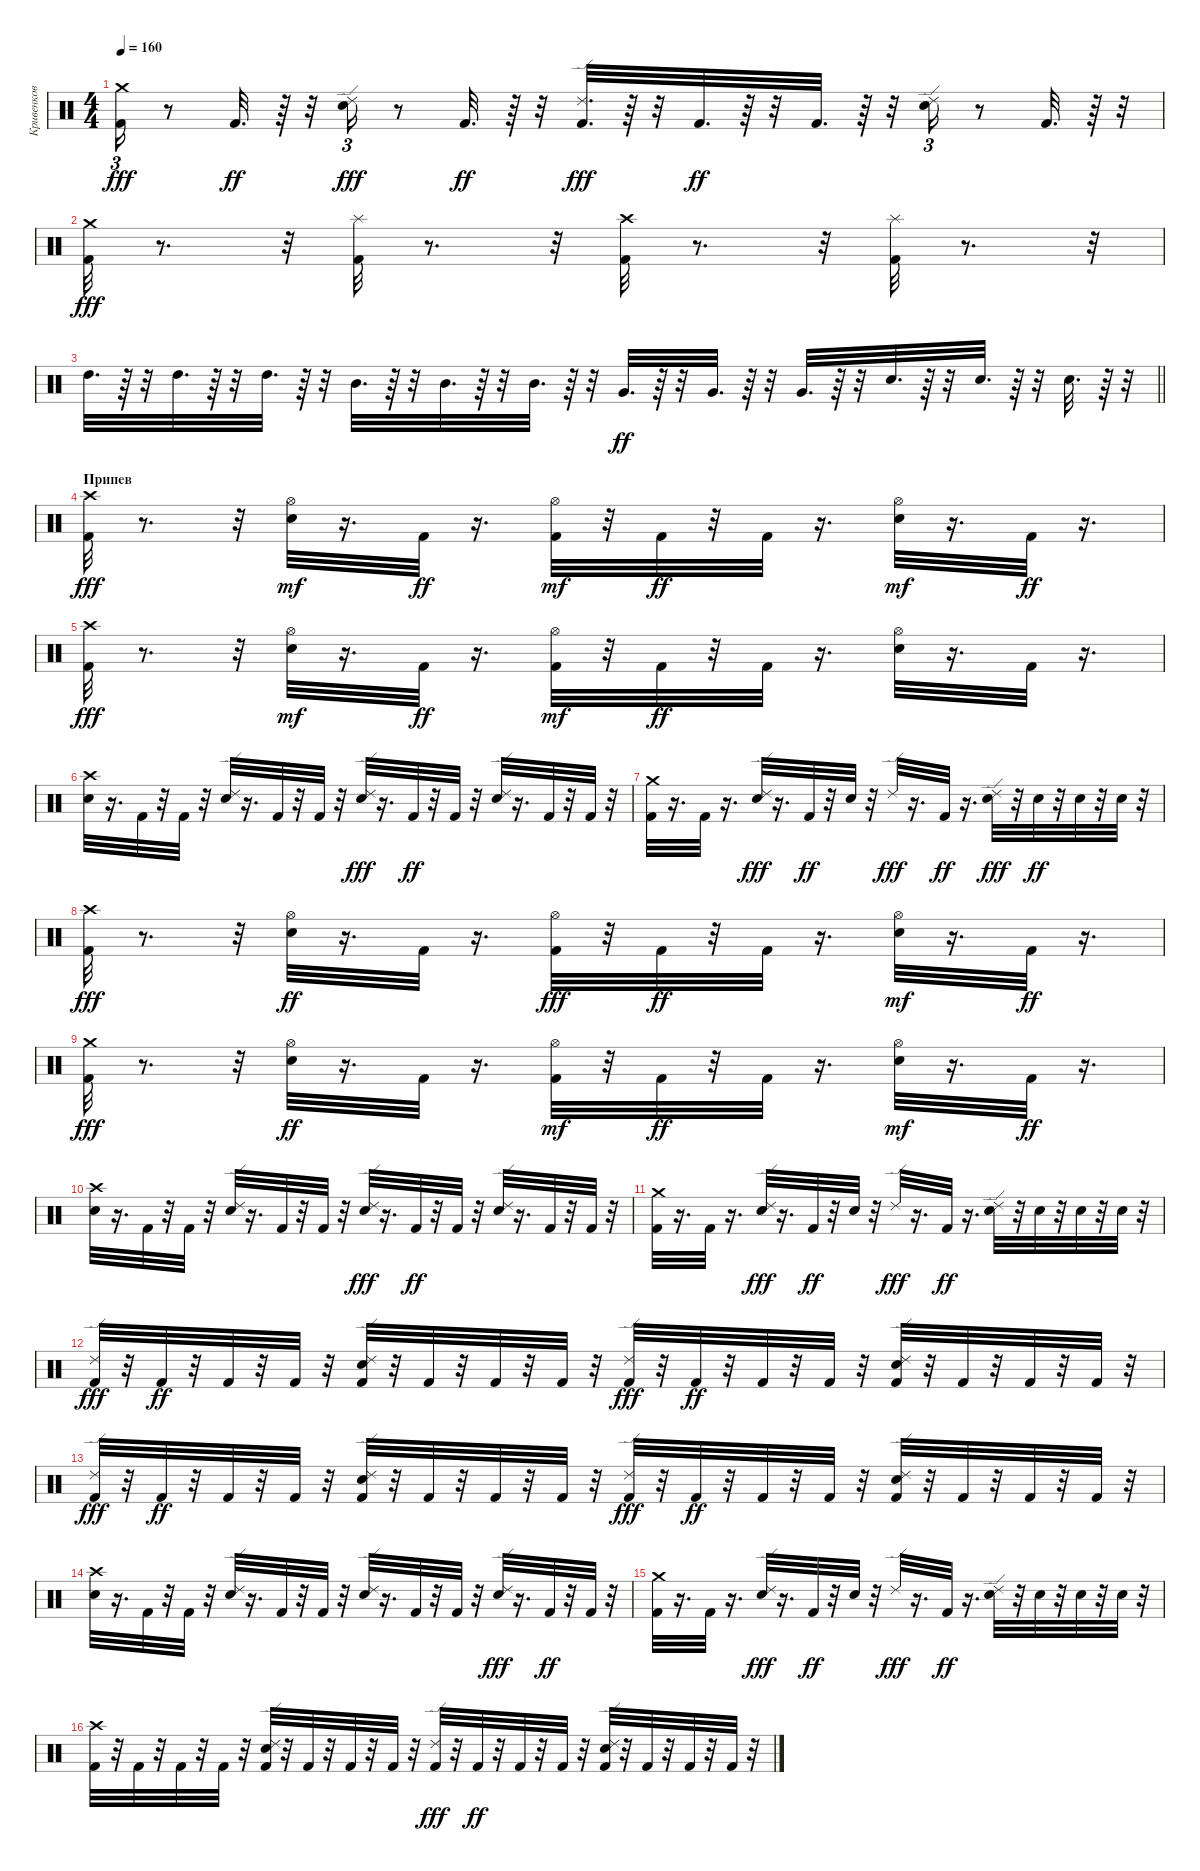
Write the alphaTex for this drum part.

\track ("Кривенков" "Кривенков") {instrument percussion}
\staff {score}
\articulation defaults
\ts (4 4)
\tempo 160
\clef neutral
\ks c
("Crash medium (hit)" "Kick (hit) 2").16{tu (3 2) dy fff} r.8 "Kick (hit) 2".32{d dy ff} r.64 r.32 ("Electric Snare (hit)" "Ride (edge) 2").16{tu (3 2) dy fff} r.8 "Kick (hit) 2".32{d dy ff} r.64 r.32 ("Ride (edge) 2" "Kick (hit) 2").32{d dy fff} r.64 r.32 "Kick (hit) 2".32{d dy ff} r.64 r.32 "Kick (hit) 2".32{d} r.64 r.32 ("Ride (edge) 2" "Electric Snare (hit)").16{tu (3 2)} r.8 "Kick (hit) 2".32{d} r.64 r.32 |
("Kick (hit) 2" "Crash medium (hit)").32{dy fff} r.8{d} r.32 ("Splash (hit)" "Kick (hit) 2").32 r.8{d} r.32 ("Kick (hit) 2" "Crash high (hit)").32 r.8{d} r.32 ("Splash (hit)" "Kick (hit) 2").32 r.8{d} r.32 |
\barLineRight lightlight "High Tom (hit)".32{d}
r.64 r.32 "High Tom (hit)".32{d} r.64 r.32 "High Tom (hit)".32{d} r.64 r.32 "Mid Tom (hit)".32{d} r.64 r.32 "Mid Tom (hit)".32{d} r.64 r.32 "Mid Tom (hit)".32{d} r.64 r.32 "Very Low Tom (hit)".32{d dy ff} r.64 r.32 "Very Low Tom (hit)".32{d} r.64 r.32 "Very Low Tom (hit)".32{d} r.64 r.32 "Electric Snare (hit)".32{d} r.64 r.32 "Electric Snare (hit)".32{d} r.64 r.32 "Electric Snare (hit)".32{d} r.64 r.32 |
\section ("" "Припев")
("Crash high (hit)" "Kick (hit) 2").32{dy fff} r.8{d} r.32 ("Electric Snare (hit)" "Hi-Hat (open)").32{dy mf} r.16{d} "Kick (hit) 2".32{dy ff} r.16{d} ("Kick (hit) 2" "Hi-Hat (open)").32{dy mf} r.32 "Kick (hit) 2".32{dy ff} r.32 "Kick (hit) 2".32 r.16{d} ("Electric Snare (hit)" "Hi-Hat (open)").32{dy mf} r.16{d} "Kick (hit) 2".32{dy ff} r.16{d} |
("Kick (hit) 2" "Crash high (hit)").32{dy fff} r.8{d} r.32 ("Electric Snare (hit)" "Hi-Hat (open)").32{dy mf} r.16{d} "Kick (hit) 2".32{dy ff} r.16{d} ("Kick (hit) 2" "Hi-Hat (open)").32{dy mf} r.32 "Kick (hit) 2".32{dy ff} r.32 "Kick (hit) 2".32 r.16{d} ("Hi-Hat (open)" "Electric Snare (hit)").32 r.16{d} "Kick (hit) 2".32 r.16{d} |
("Electric Snare (hit)" "Crash high (hit)").32 r.16{d} "Kick (hit) 2".32 r.32 "Kick (hit) 2".32 r.32 ("Ride (edge) 2" "Electric Snare (hit)").32 r.16{d} "Kick (hit) 2".32 r.32 "Kick (hit) 2".32 r.32 ("Electric Snare (hit)" "Ride (edge) 2").32{dy fff} r.16{d} "Kick (hit) 2".32{dy ff} r.32 "Kick (hit) 2".32 r.32 ("Ride (edge) 2" "Electric Snare (hit)").32 r.16{d} "Kick (hit) 2".32 r.32 "Kick (hit) 2".32 r.32 |
("Kick (hit) 2" "Crash medium (hit)").32 r.16{d} "Kick (hit) 2".32 r.16{d} ("Electric Snare (hit)" "Ride (edge) 2").32{dy fff} r.16{d} "Kick (hit) 2".32{dy ff} r.32 "Electric Snare (hit)".32 r.32 "Ride (edge) 2".32{dy fff} r.16{d} "Kick (hit) 2".32{dy ff} r.16{d} ("Electric Snare (hit)" "Ride (edge) 2").32{dy fff} r.32 "Electric Snare (hit)".32{dy ff} r.32 "Electric Snare (hit)".32 r.32 "Electric Snare (hit)".32 r.32 |
("Crash high (hit)" "Kick (hit) 2").32{dy fff} r.8{d} r.32 ("Hi-Hat (open)" "Electric Snare (hit)").32{dy ff} r.16{d} "Kick (hit) 2".32 r.16{d} ("Hi-Hat (open)" "Kick (hit) 2").32{dy fff} r.32 "Kick (hit) 2".32{dy ff} r.32 "Kick (hit) 2".32 r.16{d} ("Electric Snare (hit)" "Hi-Hat (open)").32{dy mf} r.16{d} "Kick (hit) 2".32{dy ff} r.16{d} |
("Kick (hit) 2" "Crash medium (hit)").32{dy fff} r.8{d} r.32 ("Hi-Hat (open)" "Electric Snare (hit)").32{dy ff} r.16{d} "Kick (hit) 2".32 r.16{d} ("Kick (hit) 2" "Hi-Hat (open)").32{dy mf} r.32 "Kick (hit) 2".32{dy ff} r.32 "Kick (hit) 2".32 r.16{d} ("Electric Snare (hit)" "Hi-Hat (open)").32{dy mf} r.16{d} "Kick (hit) 2".32{dy ff} r.16{d} |
("Crash high (hit)" "Electric Snare (hit)").32 r.16{d} "Kick (hit) 2".32 r.32 "Kick (hit) 2".32 r.32 ("Ride (edge) 2" "Electric Snare (hit)").32 r.16{d} "Kick (hit) 2".32 r.32 "Kick (hit) 2".32 r.32 ("Electric Snare (hit)" "Ride (edge) 2").32{dy fff} r.16{d} "Kick (hit) 2".32{dy ff} r.32 "Kick (hit) 2".32 r.32 ("Ride (edge) 2" "Electric Snare (hit)").32 r.16{d} "Kick (hit) 2".32 r.32 "Kick (hit) 2".32 r.32 |
("Kick (hit) 2" "Crash medium (hit)").32 r.16{d} "Kick (hit) 2".32 r.16{d} ("Electric Snare (hit)" "Ride (edge) 2").32{dy fff} r.16{d} "Kick (hit) 2".32{dy ff} r.32 "Electric Snare (hit)".32 r.32 "Ride (edge) 2".32{dy fff} r.16{d} "Kick (hit) 2".32{dy ff} r.16{d} ("Ride (edge) 2" "Electric Snare (hit)").32 r.32 "Electric Snare (hit)".32 r.32 "Electric Snare (hit)".32 r.32 "Electric Snare (hit)".32 r.32 |
("Kick (hit) 2" "Ride (edge) 2").32{dy fff} r.32 "Kick (hit) 2".32{dy ff} r.32 "Kick (hit) 2".32 r.32 "Kick (hit) 2".32 r.32 ("Ride (edge) 2" "Electric Snare (hit)" "Kick (hit) 2").32 r.32 "Kick (hit) 2".32 r.32 "Kick (hit) 2".32 r.32 "Kick (hit) 2".32 r.32 ("Kick (hit) 2" "Ride (edge) 2").32{dy fff} r.32 "Kick (hit) 2".32{dy ff} r.32 "Kick (hit) 2".32 r.32 "Kick (hit) 2".32 r.32 ("Electric Snare (hit)" "Ride (edge) 2" "Kick (hit) 2").32 r.32 "Kick (hit) 2".32 r.32 "Kick (hit) 2".32 r.32 "Kick (hit) 2".32 r.32 |
("Kick (hit) 2" "Ride (edge) 2").32{dy fff} r.32 "Kick (hit) 2".32{dy ff} r.32 "Kick (hit) 2".32 r.32 "Kick (hit) 2".32 r.32 ("Electric Snare (hit)" "Ride (edge) 2" "Kick (hit) 2").32 r.32 "Kick (hit) 2".32 r.32 "Kick (hit) 2".32 r.32 "Kick (hit) 2".32 r.32 ("Kick (hit) 2" "Ride (edge) 2").32{dy fff} r.32 "Kick (hit) 2".32{dy ff} r.32 "Kick (hit) 2".32 r.32 "Kick (hit) 2".32 r.32 ("Electric Snare (hit)" "Ride (edge) 2" "Kick (hit) 2").32 r.32 "Kick (hit) 2".32 r.32 "Kick (hit) 2".32 r.32 "Kick (hit) 2".32 r.32 |
("Crash high (hit)" "Electric Snare (hit)").32 r.16{d} "Kick (hit) 2".32 r.32 "Kick (hit) 2".32 r.32 ("Ride (edge) 2" "Electric Snare (hit)").32 r.16{d} "Kick (hit) 2".32 r.32 "Kick (hit) 2".32 r.32 ("Ride (edge) 2" "Electric Snare (hit)").32 r.16{d} "Kick (hit) 2".32 r.32 "Kick (hit) 2".32 r.32 ("Electric Snare (hit)" "Ride (edge) 2").32{dy fff} r.16{d} "Kick (hit) 2".32{dy ff} r.32 "Kick (hit) 2".32 r.32 |
("Kick (hit) 2" "Crash medium (hit)").32 r.16{d} "Kick (hit) 2".32 r.16{d} ("Electric Snare (hit)" "Ride (edge) 2").32{dy fff} r.16{d} "Kick (hit) 2".32{dy ff} r.32 "Electric Snare (hit)".32 r.32 "Ride (edge) 2".32{dy fff} r.16{d} "Kick (hit) 2".32{dy ff} r.16{d} ("Ride (edge) 2" "Electric Snare (hit)").32 r.32 "Electric Snare (hit)".32 r.32 "Electric Snare (hit)".32 r.32 "Electric Snare (hit)".32 r.32 |
("Kick (hit) 2" "Crash high (hit)").32 r.32 "Kick (hit) 2".32 r.32 "Kick (hit) 2".32 r.32 "Kick (hit) 2".32 r.32 ("Ride (edge) 2" "Electric Snare (hit)" "Kick (hit) 2").32 r.32 "Kick (hit) 2".32 r.32 "Kick (hit) 2".32 r.32 "Kick (hit) 2".32 r.32 ("Kick (hit) 2" "Ride (edge) 2").32{dy fff} r.32 "Kick (hit) 2".32{dy ff} r.32 "Kick (hit) 2".32 r.32 "Kick (hit) 2".32 r.32 ("Electric Snare (hit)" "Ride (edge) 2" "Kick (hit) 2").32 r.32 "Kick (hit) 2".32 r.32 "Kick (hit) 2".32 r.32 "Kick (hit) 2".32 r.32
